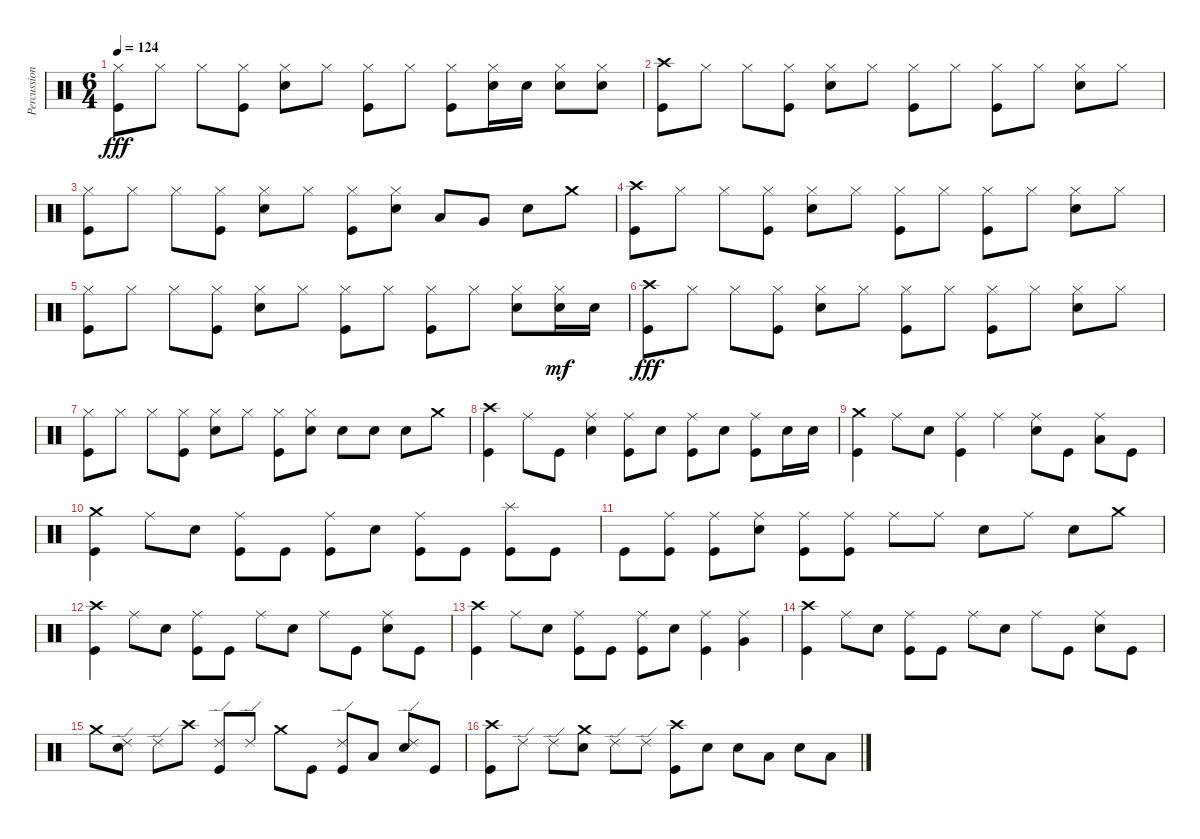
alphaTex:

\track ("Percussion" "Percussion") {instrument percussion}
\staff {score}
\articulation defaults
\ts (6 4)
\tempo 124
\clef neutral
\ks c
("Hi-Hat (closed)" "Kick (hit)").8{dy fff} "Hi-Hat (closed)".8 "Hi-Hat (closed)".8 ("Hi-Hat (closed)" "Kick (hit)").8 ("Hi-Hat (closed)" "Snare (hit) 2").8 "Hi-Hat (closed)".8 ("Hi-Hat (closed)" "Kick (hit)").8 "Hi-Hat (closed)".8 ("Hi-Hat (closed)" "Kick (hit)").8 ("Hi-Hat (closed)" "Snare (hit) 2").16 "Snare (hit) 2".16 ("Hi-Hat (closed)" "Snare (hit) 2").8 ("Hi-Hat (closed)" "Snare (hit) 2").8 |
("Crash high (hit)" "Kick (hit)").8 "Hi-Hat (closed)".8 "Hi-Hat (closed)".8 ("Hi-Hat (closed)" "Kick (hit)").8 ("Hi-Hat (closed)" "Snare (hit) 2").8 "Hi-Hat (closed)".8 ("Hi-Hat (closed)" "Kick (hit)").8 "Hi-Hat (closed)".8 ("Hi-Hat (closed)" "Kick (hit)").8 "Hi-Hat (closed)".8 ("Hi-Hat (closed)" "Snare (hit) 2").8 "Hi-Hat (closed)".8 |
("Hi-Hat (closed)" "Kick (hit)").8 "Hi-Hat (closed)".8 "Hi-Hat (closed)".8 ("Hi-Hat (closed)" "Kick (hit)").8 ("Hi-Hat (closed)" "Snare (hit) 2").8 "Hi-Hat (closed)".8 ("Hi-Hat (closed)" "Kick (hit)").8 ("Hi-Hat (closed)" "Snare (hit) 2").8 "Low Tom (hit)".8 "Very Low Tom (hit)".8 "Snare (hit) 2".8 "Crash medium (hit)".8 |
("Crash high (hit)" "Kick (hit)").8 "Hi-Hat (closed)".8 "Hi-Hat (closed)".8 ("Hi-Hat (closed)" "Kick (hit)").8 ("Hi-Hat (closed)" "Snare (hit) 2").8 "Hi-Hat (closed)".8 ("Hi-Hat (closed)" "Kick (hit)").8 "Hi-Hat (closed)".8 ("Hi-Hat (closed)" "Kick (hit)").8 "Hi-Hat (closed)".8 ("Hi-Hat (closed)" "Snare (hit) 2").8 "Hi-Hat (closed)".8 |
("Hi-Hat (closed)" "Kick (hit)").8 "Hi-Hat (closed)".8 "Hi-Hat (closed)".8 ("Hi-Hat (closed)" "Kick (hit)").8 ("Hi-Hat (closed)" "Snare (hit) 2").8 "Hi-Hat (closed)".8 ("Hi-Hat (closed)" "Kick (hit)").8 "Hi-Hat (closed)".8 ("Hi-Hat (closed)" "Kick (hit)").8 "Hi-Hat (closed)".8 ("Hi-Hat (closed)" "Snare (hit) 2").8 ("Hi-Hat (closed)" "Snare (hit) 2").16{dy mf} "Snare (hit) 2".16 |
("Crash high (hit)" "Kick (hit)").8{dy fff} "Hi-Hat (closed)".8 "Hi-Hat (closed)".8 ("Hi-Hat (closed)" "Kick (hit)").8 ("Hi-Hat (closed)" "Snare (hit) 2").8 "Hi-Hat (closed)".8 ("Hi-Hat (closed)" "Kick (hit)").8 "Hi-Hat (closed)".8 ("Hi-Hat (closed)" "Kick (hit)").8 "Hi-Hat (closed)".8 ("Hi-Hat (closed)" "Snare (hit) 2").8 "Hi-Hat (closed)".8 |
("Hi-Hat (closed)" "Kick (hit)").8 "Hi-Hat (closed)".8 "Hi-Hat (closed)".8 ("Hi-Hat (closed)" "Kick (hit)").8 ("Hi-Hat (closed)" "Snare (hit) 2").8 "Hi-Hat (closed)".8 ("Hi-Hat (closed)" "Kick (hit)").8 ("Hi-Hat (closed)" "Snare (hit) 2").8 "Snare (hit) 2".8 "Snare (hit) 2".8 "Snare (hit) 2".8 "Crash medium (hit)".8 |
("Crash high (hit)" "Kick (hit)").4 "Ride (middle)".8 "Kick (hit)".8 ("Ride (middle)" "Snare (hit) 2").4 ("Ride (middle)" "Kick (hit)").8 "Snare (hit) 2".8 ("Ride (middle)" "Kick (hit)").8 "Snare (hit) 2".8 ("Ride (middle)" "Kick (hit)").8 "Snare (hit) 2".16 "Snare (hit) 2".16 |
("Crash medium (hit)" "Kick (hit)").4 "Ride (middle)".8 "Snare (hit) 2".8 ("Ride (middle)" "Kick (hit)").4 "Ride (middle)".4 ("Ride (middle)" "Snare (hit) 2").8 "Kick (hit)".8 ("Ride (middle)" "Low Floor Tom (hit)").8 "Kick (hit)".8 |
("Crash medium (hit)" "Kick (hit)").4 "Ride (middle)".8 "Snare (hit) 2".8 ("Ride (middle)" "Kick (hit)").8 "Kick (hit)".8 ("Ride (middle)" "Kick (hit)").8 "Snare (hit) 2".8 ("Ride (middle)" "Kick (hit)").8 "Kick (hit)".8 ("Splash (hit)" "Kick (hit)").8 "Kick (hit)".8 |
"Kick (hit)".8 ("Ride (middle)" "Kick (hit)").8 ("Ride (middle)" "Kick (hit)").8 ("Ride (middle)" "Snare (hit) 2").8 ("Ride (middle)" "Kick (hit)").8 ("Ride (middle)" "Kick (hit)").8 "Ride (middle)".8 "Ride (middle)".8 "Snare (hit) 2".8 "Ride (middle)".8 "Snare (hit) 2".8 "Crash medium (hit)".8 |
("Crash high (hit)" "Kick (hit)").4 "Ride (middle)".8 "Snare (hit) 2".8 ("Ride (middle)" "Kick (hit)").8 "Kick (hit)".8 "Ride (middle)".8 "Snare (hit) 2".8 "Ride (middle)".8 "Kick (hit)".8 ("Ride (middle)" "Snare (hit) 2").8 "Kick (hit)".8 |
("Crash high (hit)" "Kick (hit)").4 "Ride (middle)".8 "Snare (hit) 2".8 ("Ride (middle)" "Kick (hit)").8 "Kick (hit)".8 ("Ride (middle)" "Kick (hit)").8 "Snare (hit) 2".8 ("Ride (middle)" "Kick (hit)").4 ("Ride (middle)" "Very Low Tom (hit)").4 |
("Crash high (hit)" "Kick (hit)").4 "Ride (middle)".8 "Snare (hit) 2".8 ("Ride (middle)" "Kick (hit)").8 "Kick (hit)".8 "Ride (middle)".8 "Snare (hit) 2".8 "Ride (middle)".8 "Kick (hit)".8 ("Ride (middle)" "Snare (hit) 2").8 "Kick (hit)".8 |
"Crash medium (hit)".8 ("Ride (edge) 2" "Snare (hit) 2").8 "Ride (edge) 2".8 "Crash high (hit)".8 ("Ride (edge) 2" "Kick (hit)").8 "Ride (edge) 2".8 "Crash medium (hit)".8 "Kick (hit)".8 ("Ride (edge) 2" "Kick (hit)").8 "Low Tom (hit)".8 ("Ride (edge) 2" "Snare (hit) 2").8 "Kick (hit)".8 |
("Crash high (hit)" "Kick (hit)").8 "Ride (edge) 2".8 "Ride (edge) 2".8 ("Crash medium (hit)" "Snare (hit) 2").8 "Ride (edge) 2".8 "Ride (edge) 2".8 ("Crash high (hit)" "Kick (hit)").8 "Snare (hit) 2".8 "Snare (hit) 2".8 "Low Tom (hit)".8 "Snare (hit) 2".8 "Low Tom (hit)".8
